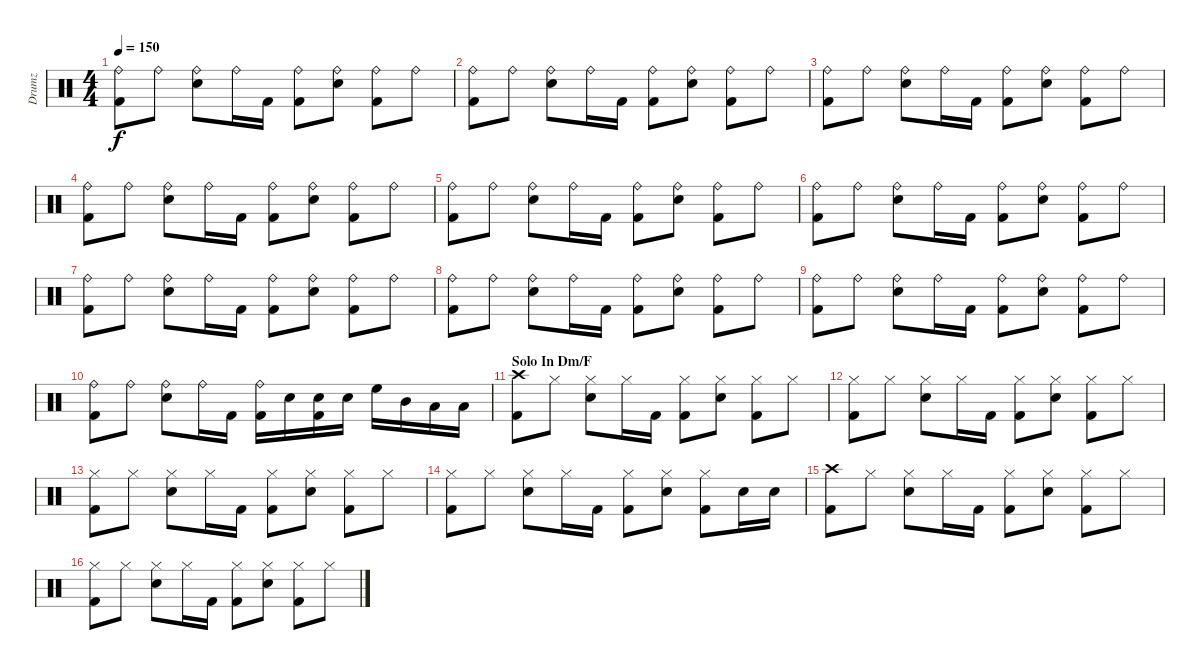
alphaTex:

\track ("Drumz" "Drumz") {instrument percussion}
\staff {score}
\articulation defaults
\ts (4 4)
\tempo 150
\clef neutral
\ks c
("Ride (bell)" "Kick (hit) 2").8{dy f} "Ride (bell)".8 ("Ride (bell)" "Snare (hit) 2").8 "Ride (bell)".16 "Kick (hit) 2".16 ("Ride (bell)" "Kick (hit) 2").8 ("Ride (bell)" "Snare (hit) 2").8 ("Ride (bell)" "Kick (hit) 2").8 "Ride (bell)".8 |
("Ride (bell)" "Kick (hit) 2").8 "Ride (bell)".8 ("Ride (bell)" "Snare (hit) 2").8 "Ride (bell)".16 "Kick (hit) 2".16 ("Ride (bell)" "Kick (hit) 2").8 ("Ride (bell)" "Snare (hit) 2").8 ("Ride (bell)" "Kick (hit) 2").8 "Ride (bell)".8 |
("Ride (bell)" "Kick (hit) 2").8 "Ride (bell)".8 ("Ride (bell)" "Snare (hit) 2").8 "Ride (bell)".16 "Kick (hit) 2".16 ("Ride (bell)" "Kick (hit) 2").8 ("Ride (bell)" "Snare (hit) 2").8 ("Ride (bell)" "Kick (hit) 2").8 "Ride (bell)".8 |
("Ride (bell)" "Kick (hit) 2").8 "Ride (bell)".8 ("Ride (bell)" "Snare (hit) 2").8 "Ride (bell)".16 "Kick (hit) 2".16 ("Ride (bell)" "Kick (hit) 2").8 ("Ride (bell)" "Snare (hit) 2").8 ("Ride (bell)" "Kick (hit) 2").8 "Ride (bell)".8 |
("Ride (bell)" "Kick (hit) 2").8 "Ride (bell)".8 ("Ride (bell)" "Snare (hit) 2").8 "Ride (bell)".16 "Kick (hit) 2".16 ("Ride (bell)" "Kick (hit) 2").8 ("Ride (bell)" "Snare (hit) 2").8 ("Ride (bell)" "Kick (hit) 2").8 "Ride (bell)".8 |
("Ride (bell)" "Kick (hit) 2").8 "Ride (bell)".8 ("Ride (bell)" "Snare (hit) 2").8 "Ride (bell)".16 "Kick (hit) 2".16 ("Ride (bell)" "Kick (hit) 2").8 ("Ride (bell)" "Snare (hit) 2").8 ("Ride (bell)" "Kick (hit) 2").8 "Ride (bell)".8 |
("Ride (bell)" "Kick (hit) 2").8 "Ride (bell)".8 ("Ride (bell)" "Snare (hit) 2").8 "Ride (bell)".16 "Kick (hit) 2".16 ("Ride (bell)" "Kick (hit) 2").8 ("Ride (bell)" "Snare (hit) 2").8 ("Ride (bell)" "Kick (hit) 2").8 "Ride (bell)".8 |
("Ride (bell)" "Kick (hit) 2").8 "Ride (bell)".8 ("Ride (bell)" "Snare (hit) 2").8 "Ride (bell)".16 "Kick (hit) 2".16 ("Ride (bell)" "Kick (hit) 2").8 ("Ride (bell)" "Snare (hit) 2").8 ("Ride (bell)" "Kick (hit) 2").8 "Ride (bell)".8 |
("Ride (bell)" "Kick (hit) 2").8 "Ride (bell)".8 ("Ride (bell)" "Snare (hit) 2").8 "Ride (bell)".16 "Kick (hit) 2".16 ("Ride (bell)" "Kick (hit) 2").8 ("Ride (bell)" "Snare (hit) 2").8 ("Ride (bell)" "Kick (hit) 2").8 "Ride (bell)".8 |
("Ride (bell)" "Kick (hit) 2").8 "Ride (bell)".8 ("Ride (bell)" "Snare (hit) 2").8 "Ride (bell)".16 "Kick (hit) 2".16 ("Ride (bell)" "Kick (hit) 2").16 "Snare (hit) 2".16 ("Snare (hit) 2" "Kick (hit) 2").16 "Snare (hit) 2".16 "High Floor Tom (hit)".16 "Mid Tom (hit)".16 "Low Tom (hit)".16 "Low Floor Tom (hit)".16 |
\section ("" "Solo In Dm/F")
("Crash high (hit)" "Kick (hit) 2").8 "Hi-Hat (closed)".8 ("Hi-Hat (closed)" "Snare (hit) 2").8 "Hi-Hat (closed)".16 "Kick (hit) 2".16 ("Hi-Hat (closed)" "Kick (hit) 2").8 ("Hi-Hat (closed)" "Snare (hit) 2").8 ("Hi-Hat (closed)" "Kick (hit) 2").8 "Hi-Hat (closed)".8 |
("Hi-Hat (closed)" "Kick (hit) 2").8 "Hi-Hat (closed)".8 ("Hi-Hat (closed)" "Snare (hit) 2").8 "Hi-Hat (closed)".16 "Kick (hit) 2".16 ("Hi-Hat (closed)" "Kick (hit) 2").8 ("Hi-Hat (closed)" "Snare (hit) 2").8 ("Hi-Hat (closed)" "Kick (hit) 2").8 "Hi-Hat (closed)".8 |
("Hi-Hat (closed)" "Kick (hit) 2").8 "Hi-Hat (closed)".8 ("Hi-Hat (closed)" "Snare (hit) 2").8 "Hi-Hat (closed)".16 "Kick (hit) 2".16 ("Hi-Hat (closed)" "Kick (hit) 2").8 ("Hi-Hat (closed)" "Snare (hit) 2").8 ("Hi-Hat (closed)" "Kick (hit) 2").8 "Hi-Hat (closed)".8 |
("Hi-Hat (closed)" "Kick (hit) 2").8 "Hi-Hat (closed)".8 ("Hi-Hat (closed)" "Snare (hit) 2").8 "Hi-Hat (closed)".16 "Kick (hit) 2".16 ("Hi-Hat (closed)" "Kick (hit) 2").8 ("Hi-Hat (closed)" "Snare (hit) 2").8 ("Hi-Hat (closed)" "Kick (hit) 2").8 "Snare (hit) 2".16 "Snare (hit) 2".16 |
("Crash high (hit)" "Kick (hit) 2").8 "Hi-Hat (closed)".8 ("Hi-Hat (closed)" "Snare (hit) 2").8 "Hi-Hat (closed)".16 "Kick (hit) 2".16 ("Hi-Hat (closed)" "Kick (hit) 2").8 ("Hi-Hat (closed)" "Snare (hit) 2").8 ("Hi-Hat (closed)" "Kick (hit) 2").8 "Hi-Hat (closed)".8 |
("Hi-Hat (closed)" "Kick (hit) 2").8 "Hi-Hat (closed)".8 ("Hi-Hat (closed)" "Snare (hit) 2").8 "Hi-Hat (closed)".16 "Kick (hit) 2".16 ("Hi-Hat (closed)" "Kick (hit) 2").8 ("Hi-Hat (closed)" "Snare (hit) 2").8 ("Hi-Hat (closed)" "Kick (hit) 2").8 "Hi-Hat (closed)".8
